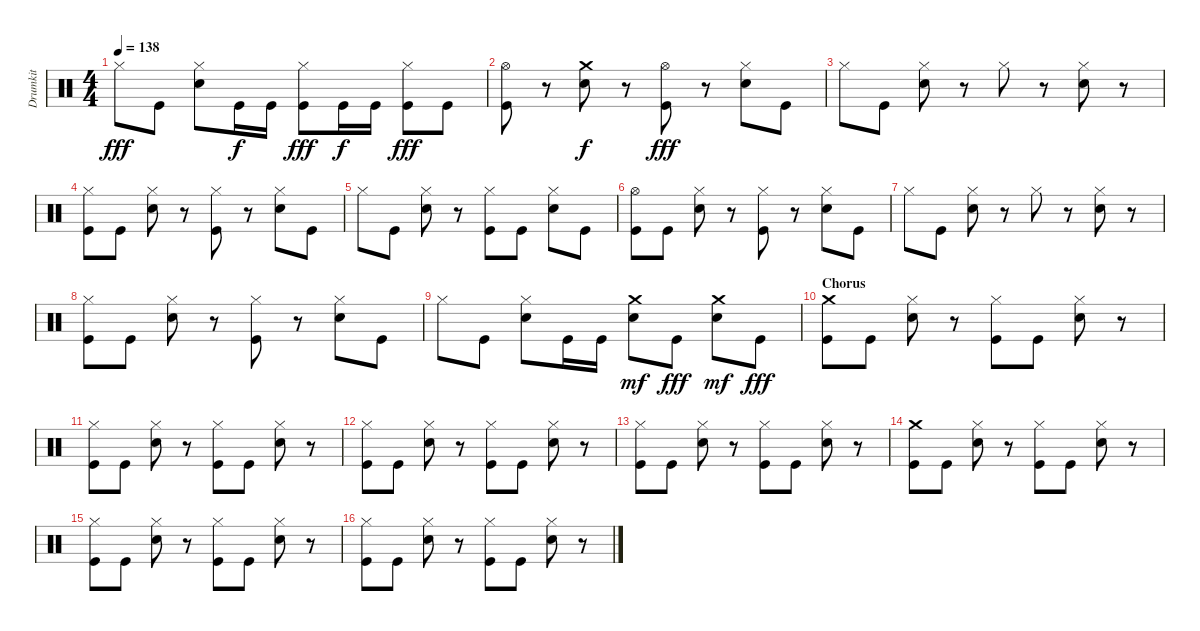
\track ("Drumkit" "Drumkit") {instrument percussion}
\staff {score}
\articulation defaults
\ts (4 4)
\tempo 138
\clef neutral
\ks c "Hi-Hat (closed)".8{dy fff} "Kick (hit)".8
("Hi-Hat (closed)" "Snare (hit) 2").8 "Kick (hit)".16{dy f} "Kick (hit)".16 ("Hi-Hat (closed)" "Kick (hit)").8{dy fff} "Kick (hit)".16{dy f} "Kick (hit)".16 ("Hi-Hat (closed)" "Kick (hit)").8{dy fff} "Kick (hit)".8 |
("Hi-Hat (open)" "Kick (hit)").8 r.8 ("Crash medium (hit)" "Snare (hit) 2").8{dy f} r.8 ("Hi-Hat (open)" "Kick (hit)").8{dy fff} r.8 ("Hi-Hat (closed)" "Snare (hit) 2").8 "Kick (hit)".8 |
"Hi-Hat (closed)".8 "Kick (hit)".8 ("Hi-Hat (closed)" "Snare (hit) 2").8 r.8 "Hi-Hat (closed)".8 r.8 ("Hi-Hat (closed)" "Snare (hit) 2").8 r.8 |
("Hi-Hat (closed)" "Kick (hit)").8 "Kick (hit)".8 ("Hi-Hat (closed)" "Snare (hit) 2").8 r.8 ("Hi-Hat (closed)" "Kick (hit)").8 r.8 ("Hi-Hat (closed)" "Snare (hit) 2").8 "Kick (hit)".8 |
"Hi-Hat (closed)".8 "Kick (hit)".8 ("Hi-Hat (closed)" "Snare (hit) 2").8 r.8 ("Hi-Hat (closed)" "Kick (hit)").8 "Kick (hit)".8 ("Hi-Hat (closed)" "Snare (hit) 2").8 "Kick (hit)".8 |
("Hi-Hat (open)" "Kick (hit)").8 "Kick (hit)".8 ("Hi-Hat (closed)" "Snare (hit) 2").8 r.8 ("Hi-Hat (closed)" "Kick (hit)").8 r.8 ("Hi-Hat (closed)" "Snare (hit) 2").8 "Kick (hit)".8 |
"Hi-Hat (closed)".8 "Kick (hit)".8 ("Hi-Hat (closed)" "Snare (hit) 2").8 r.8 "Hi-Hat (closed)".8 r.8 ("Hi-Hat (closed)" "Snare (hit) 2").8 r.8 |
("Hi-Hat (closed)" "Kick (hit)").8 "Kick (hit)".8 ("Hi-Hat (closed)" "Snare (hit) 2").8 r.8 ("Hi-Hat (closed)" "Kick (hit)").8 r.8 ("Hi-Hat (closed)" "Snare (hit) 2").8 "Kick (hit)".8 |
"Hi-Hat (closed)".8 "Kick (hit)".8 ("Hi-Hat (closed)" "Snare (hit) 2").8 "Kick (hit)".16 "Kick (hit)".16 ("Crash medium (hit)" "Snare (hit) 2").8{dy mf} "Kick (hit)".8{dy fff} ("Crash medium (hit)" "Snare (hit) 2").8{dy mf} "Kick (hit)".8{dy fff} |
\section ("" "Chorus")
("Crash medium (hit)" "Kick (hit)").8 "Kick (hit)".8 ("Hi-Hat (closed)" "Snare (hit) 2").8 r.8 ("Hi-Hat (closed)" "Kick (hit)").8 "Kick (hit)".8 ("Hi-Hat (closed)" "Snare (hit) 2").8 r.8 |
("Hi-Hat (closed)" "Kick (hit)").8 "Kick (hit)".8 ("Hi-Hat (closed)" "Snare (hit) 2").8 r.8 ("Hi-Hat (closed)" "Kick (hit)").8 "Kick (hit)".8 ("Hi-Hat (closed)" "Snare (hit) 2").8 r.8 |
("Hi-Hat (closed)" "Kick (hit)").8 "Kick (hit)".8 ("Hi-Hat (closed)" "Snare (hit) 2").8 r.8 ("Hi-Hat (closed)" "Kick (hit)").8 "Kick (hit)".8 ("Hi-Hat (closed)" "Snare (hit) 2").8 r.8 |
("Hi-Hat (closed)" "Kick (hit)").8 "Kick (hit)".8 ("Hi-Hat (closed)" "Snare (hit) 2").8 r.8 ("Hi-Hat (closed)" "Kick (hit)").8 "Kick (hit)".8 ("Hi-Hat (closed)" "Snare (hit) 2").8 r.8 |
("Crash medium (hit)" "Kick (hit)").8 "Kick (hit)".8 ("Hi-Hat (closed)" "Snare (hit) 2").8 r.8 ("Hi-Hat (closed)" "Kick (hit)").8 "Kick (hit)".8 ("Hi-Hat (closed)" "Snare (hit) 2").8 r.8 |
("Hi-Hat (closed)" "Kick (hit)").8 "Kick (hit)".8 ("Hi-Hat (closed)" "Snare (hit) 2").8 r.8 ("Hi-Hat (closed)" "Kick (hit)").8 "Kick (hit)".8 ("Hi-Hat (closed)" "Snare (hit) 2").8 r.8 |
("Hi-Hat (closed)" "Kick (hit)").8 "Kick (hit)".8 ("Hi-Hat (closed)" "Snare (hit) 2").8 r.8 ("Hi-Hat (closed)" "Kick (hit)").8 "Kick (hit)".8 ("Hi-Hat (closed)" "Snare (hit) 2").8 r.8
